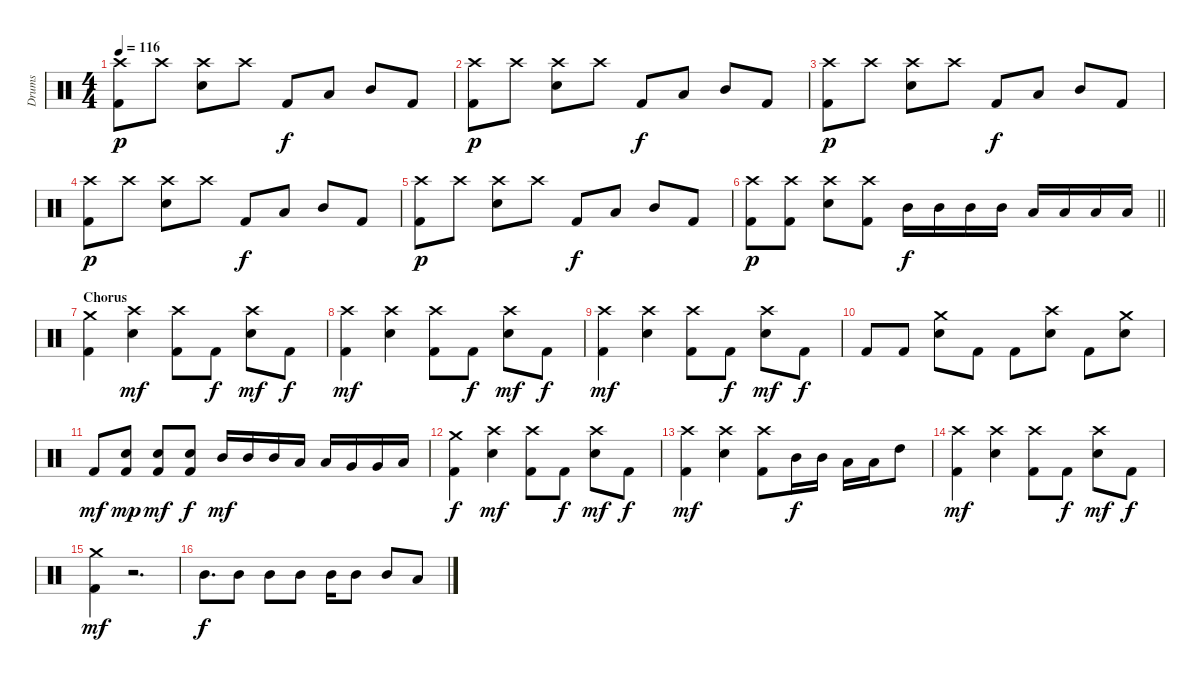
\track ("Drums" "Drums") {instrument percussion}
\staff {score}
\articulation defaults
\ts (4 4)
\tempo 116
\clef neutral
\ks c
("Crash high (hit)" "Kick (hit) 2").8{dy p} "Crash high (hit)".8 ("Snare (hit) 2" "Crash high (hit)").8 "Crash high (hit)".8 "Kick (hit) 2".8{dy f} "Low Tom (hit)".8 "Mid Tom (hit)".8 "Kick (hit) 2".8 |
("Kick (hit) 2" "Crash high (hit)").8{dy p} "Crash high (hit)".8 ("Snare (hit) 2" "Crash high (hit)").8 "Crash high (hit)".8 "Kick (hit) 2".8{dy f} "Low Tom (hit)".8 "Mid Tom (hit)".8 "Kick (hit) 2".8 |
("Crash high (hit)" "Kick (hit) 2").8{dy p} "Crash high (hit)".8 ("Snare (hit) 2" "Crash high (hit)").8 "Crash high (hit)".8 "Kick (hit) 2".8{dy f} "Low Tom (hit)".8 "Mid Tom (hit)".8 "Kick (hit) 2".8 |
("Kick (hit) 2" "Crash high (hit)").8{dy p} "Crash high (hit)".8 ("Snare (hit) 2" "Crash high (hit)").8 "Crash high (hit)".8 "Kick (hit) 2".8{dy f} "Low Tom (hit)".8 "Mid Tom (hit)".8 "Kick (hit) 2".8 |
("Crash high (hit)" "Kick (hit) 2").8{dy p} "Crash high (hit)".8 ("Snare (hit) 2" "Crash high (hit)").8 "Crash high (hit)".8 "Kick (hit) 2".8{dy f} "Low Tom (hit)".8 "Mid Tom (hit)".8 "Kick (hit) 2".8 |
\barLineRight lightlight
("Kick (hit) 2" "Crash high (hit)").8{dy p} ("Kick (hit) 2" "Crash high (hit)").8 ("Snare (hit) 2" "Crash high (hit)").8 ("Crash high (hit)" "Kick (hit) 2").8 "Mid Tom (hit)".16{dy f} "Mid Tom (hit)".16 "Mid Tom (hit)".16 "Mid Tom (hit)".16 "Low Tom (hit)".16 "Low Tom (hit)".16 "Low Tom (hit)".16 "Low Tom (hit)".16 |
\section ("" "Chorus")
("Crash medium (hit)" "Kick (hit) 2").4 ("Crash high (hit)" "Snare (hit) 2").4{dy mf} ("Kick (hit) 2" "Crash high (hit)").8 "Kick (hit) 2".8{dy f} ("Crash high (hit)" "Snare (hit) 2").8{dy mf} "Kick (hit) 2".8{dy f} |
("Kick (hit) 2" "Crash high (hit)").4{dy mf} ("Crash high (hit)" "Snare (hit) 2").4 ("Kick (hit) 2" "Crash high (hit)").8 "Kick (hit) 2".8{dy f} ("Crash high (hit)" "Snare (hit) 2").8{dy mf} "Kick (hit) 2".8{dy f} |
("Kick (hit) 2" "Crash high (hit)").4{dy mf} ("Crash high (hit)" "Snare (hit) 2").4 ("Kick (hit) 2" "Crash high (hit)").8 "Kick (hit) 2".8{dy f} ("Crash high (hit)" "Snare (hit) 2").8{dy mf} "Kick (hit) 2".8{dy f} |
"Kick (hit) 2".8 "Kick (hit) 2".8 ("Snare (hit) 2" "Crash medium (hit)").8 "Kick (hit) 2".8 "Kick (hit) 2".8 ("Crash high (hit)" "Snare (hit) 2").8 "Kick (hit) 2".8 ("Snare (hit) 2" "Crash medium (hit)").8 |
"Kick (hit) 2".8{dy mf} ("Kick (hit) 2" "Snare (hit) 2").8{dy mp} ("Snare (hit) 2" "Kick (hit) 2").8{dy mf} ("Snare (hit) 2" "Kick (hit) 2").8{dy f} "Mid Tom (hit)".16{dy mf} "Mid Tom (hit)".16 "Mid Tom (hit)".16 "Low Tom (hit)".16 "Low Tom (hit)".16 "Very Low Tom (hit)".16 "Very Low Tom (hit)".16 "Low Floor Tom (hit)".16 |
("Crash medium (hit)" "Kick (hit) 2").4{dy f} ("Crash high (hit)" "Snare (hit) 2").4{dy mf} ("Kick (hit) 2" "Crash high (hit)").8 "Kick (hit) 2".8{dy f} ("Snare (hit) 2" "Crash high (hit)").8{dy mf} "Kick (hit) 2".8{dy f} |
("Kick (hit) 2" "Crash high (hit)").4{dy mf} ("Snare (hit) 2" "Crash high (hit)").4 ("Kick (hit) 2" "Crash high (hit)").8 "Mid Tom (hit)".16{dy f} "Mid Tom (hit)".16 "Low Tom (hit)".16 "Low Tom (hit)".16 "High Tom (hit)".8 |
("Kick (hit) 2" "Crash high (hit)").4{dy mf} ("Snare (hit) 2" "Crash high (hit)").4 ("Crash high (hit)" "Kick (hit) 2").8 "Kick (hit) 2".8{dy f} ("Crash high (hit)" "Snare (hit) 2").8{dy mf} "Kick (hit) 2".8{dy f} |
("Kick (hit) 2" "Crash medium (hit)").4{dy mf} r.2{d} |
"Mid Tom (hit)".8{d dy f} "Mid Tom (hit)".8 "Mid Tom (hit)".8 "Mid Tom (hit)".8 "Mid Tom (hit)".16 "Mid Tom (hit)".8 "Mid Tom (hit)".8 "Low Tom (hit)".8
